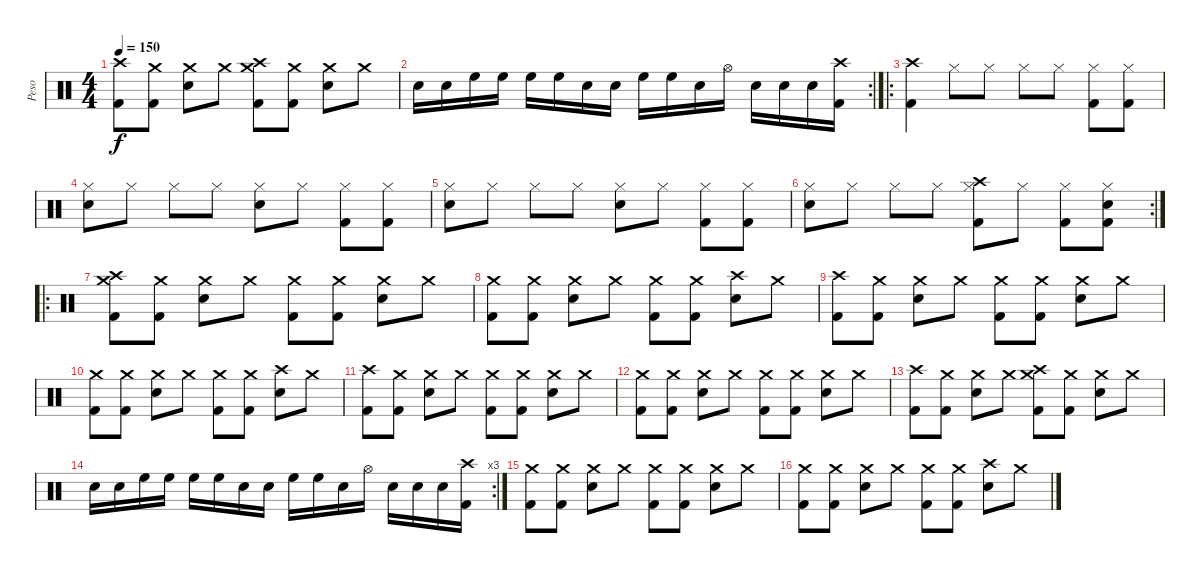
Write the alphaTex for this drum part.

\track ("Peso" "Peso") {instrument percussion}
\staff {score}
\articulation defaults
\ts (4 4)
\tempo 150
\clef neutral
\ks c
("Crash high (hit)" "Kick (hit) 2").8{dy f} ("Crash medium (hit)" "Kick (hit) 2").8 ("Crash medium (hit)" "Snare (hit) 2").8 "Crash medium (hit)".8 ("Crash high (hit)" "Crash medium (hit)" "Kick (hit) 2").8 ("Crash medium (hit)" "Kick (hit) 2").8 ("Crash medium (hit)" "Snare (hit) 2").8 "Crash medium (hit)".8 |
\rc 2 "Snare (hit) 2".16 "Snare (hit) 2".16 "High Floor Tom (hit)".16 "High Floor Tom (hit)".16 "High Floor Tom (hit)".16 "High Floor Tom (hit)".16 "Snare (hit) 2".16 "Snare (hit) 2".16 "High Floor Tom (hit)".16 "High Floor Tom (hit)".16 "Snare (hit) 2".16 "Hi-Hat (open)".16 "Snare (hit) 2".16 "Snare (hit) 2".16 "Snare (hit) 2".16
("Crash high (hit)" "Kick (hit) 2").16 |
\ro
("Crash high (hit)" "Kick (hit) 2").4 "Hi-Hat (closed)".8 "Hi-Hat (closed)".8 "Hi-Hat (closed)".8 "Hi-Hat (closed)".8 ("Hi-Hat (closed)" "Kick (hit) 2").8 ("Hi-Hat (closed)" "Kick (hit) 2").8 |
("Hi-Hat (closed)" "Snare (hit) 2").8 "Hi-Hat (closed)".8 "Hi-Hat (closed)".8 "Hi-Hat (closed)".8 ("Hi-Hat (closed)" "Snare (hit) 2").8 "Hi-Hat (closed)".8 ("Hi-Hat (closed)" "Kick (hit) 2").8 ("Hi-Hat (closed)" "Kick (hit) 2").8 |
("Hi-Hat (closed)" "Snare (hit) 2").8 "Hi-Hat (closed)".8 "Hi-Hat (closed)".8 "Hi-Hat (closed)".8 ("Hi-Hat (closed)" "Snare (hit) 2").8 "Hi-Hat (closed)".8 ("Hi-Hat (closed)" "Kick (hit) 2").8 ("Hi-Hat (closed)" "Kick (hit) 2").8 |
\rc 2
("Hi-Hat (closed)" "Snare (hit) 2").8 "Hi-Hat (closed)".8 "Hi-Hat (closed)".8 "Hi-Hat (closed)".8 ("Crash high (hit)" "Hi-Hat (closed)" "Kick (hit) 2").8 "Hi-Hat (closed)".8 ("Hi-Hat (closed)" "Kick (hit) 2").8 ("Hi-Hat (closed)" "Snare (hit) 2" "Kick (hit) 2").8 |
\ro
("Crash high (hit)" "Crash medium (hit)" "Kick (hit) 2").8 ("Crash medium (hit)" "Kick (hit) 2").8 ("Crash medium (hit)" "Snare (hit) 2").8 "Crash medium (hit)".8 ("Crash medium (hit)" "Kick (hit) 2").8 ("Crash medium (hit)" "Kick (hit) 2").8 ("Crash medium (hit)" "Snare (hit) 2").8 "Crash medium (hit)".8 |
("Crash medium (hit)" "Kick (hit) 2").8 ("Crash medium (hit)" "Kick (hit) 2").8 ("Crash medium (hit)" "Snare (hit) 2").8 "Crash medium (hit)".8 ("Crash medium (hit)" "Kick (hit) 2").8 ("Crash medium (hit)" "Kick (hit) 2").8 ("Crash high (hit)" "Snare (hit) 2").8 "Crash medium (hit)".8 |
("Crash high (hit)" "Kick (hit) 2").8 ("Crash medium (hit)" "Kick (hit) 2").8 ("Crash medium (hit)" "Snare (hit) 2").8 "Crash medium (hit)".8 ("Crash medium (hit)" "Kick (hit) 2").8 ("Crash medium (hit)" "Kick (hit) 2").8 ("Crash medium (hit)" "Snare (hit) 2").8 "Crash medium (hit)".8 |
("Crash medium (hit)" "Kick (hit) 2").8 ("Crash medium (hit)" "Kick (hit) 2").8 ("Crash medium (hit)" "Snare (hit) 2").8 "Crash medium (hit)".8 ("Crash medium (hit)" "Kick (hit) 2").8 ("Crash medium (hit)" "Kick (hit) 2").8 ("Crash high (hit)" "Snare (hit) 2").8 "Crash medium (hit)".8 |
("Crash high (hit)" "Kick (hit) 2").8 ("Crash medium (hit)" "Kick (hit) 2").8 ("Crash medium (hit)" "Snare (hit) 2").8 "Crash medium (hit)".8 ("Crash medium (hit)" "Kick (hit) 2").8 ("Crash medium (hit)" "Kick (hit) 2").8 ("Crash medium (hit)" "Snare (hit) 2").8 "Crash medium (hit)".8 |
("Crash medium (hit)" "Kick (hit) 2").8 ("Crash medium (hit)" "Kick (hit) 2").8 ("Crash medium (hit)" "Snare (hit) 2").8 "Crash medium (hit)".8 ("Crash medium (hit)" "Kick (hit) 2").8 ("Crash medium (hit)" "Kick (hit) 2").8 ("Crash medium (hit)" "Snare (hit) 2").8 "Crash medium (hit)".8 |
("Crash high (hit)" "Kick (hit) 2").8 ("Crash medium (hit)" "Kick (hit) 2").8 ("Crash medium (hit)" "Snare (hit) 2").8 "Crash medium (hit)".8 ("Crash high (hit)" "Crash medium (hit)" "Kick (hit) 2").8 ("Crash medium (hit)" "Kick (hit) 2").8 ("Crash medium (hit)" "Snare (hit) 2").8 "Crash medium (hit)".8 |
\rc 3 "Snare (hit) 2".16 "Snare (hit) 2".16 "High Floor Tom (hit)".16 "High Floor Tom (hit)".16 "High Floor Tom (hit)".16 "High Floor Tom (hit)".16 "Snare (hit) 2".16 "Snare (hit) 2".16 "High Floor Tom (hit)".16 "High Floor Tom (hit)".16 "Snare (hit) 2".16 "Hi-Hat (open)".16 "Snare (hit) 2".16 "Snare (hit) 2".16 "Snare (hit) 2".16
("Crash high (hit)" "Kick (hit) 2").16 |
("Crash medium (hit)" "Kick (hit) 2").8 ("Crash medium (hit)" "Kick (hit) 2").8 ("Crash medium (hit)" "Snare (hit) 2").8 "Crash medium (hit)".8 ("Crash medium (hit)" "Kick (hit) 2").8 ("Crash medium (hit)" "Kick (hit) 2").8 ("Crash medium (hit)" "Snare (hit) 2").8 "Crash medium (hit)".8 |
("Crash medium (hit)" "Kick (hit) 2").8 ("Crash medium (hit)" "Kick (hit) 2").8 ("Crash medium (hit)" "Snare (hit) 2").8 "Crash medium (hit)".8 ("Crash medium (hit)" "Kick (hit) 2").8 ("Crash medium (hit)" "Kick (hit) 2").8 ("Crash high (hit)" "Snare (hit) 2").8 "Crash medium (hit)".8
